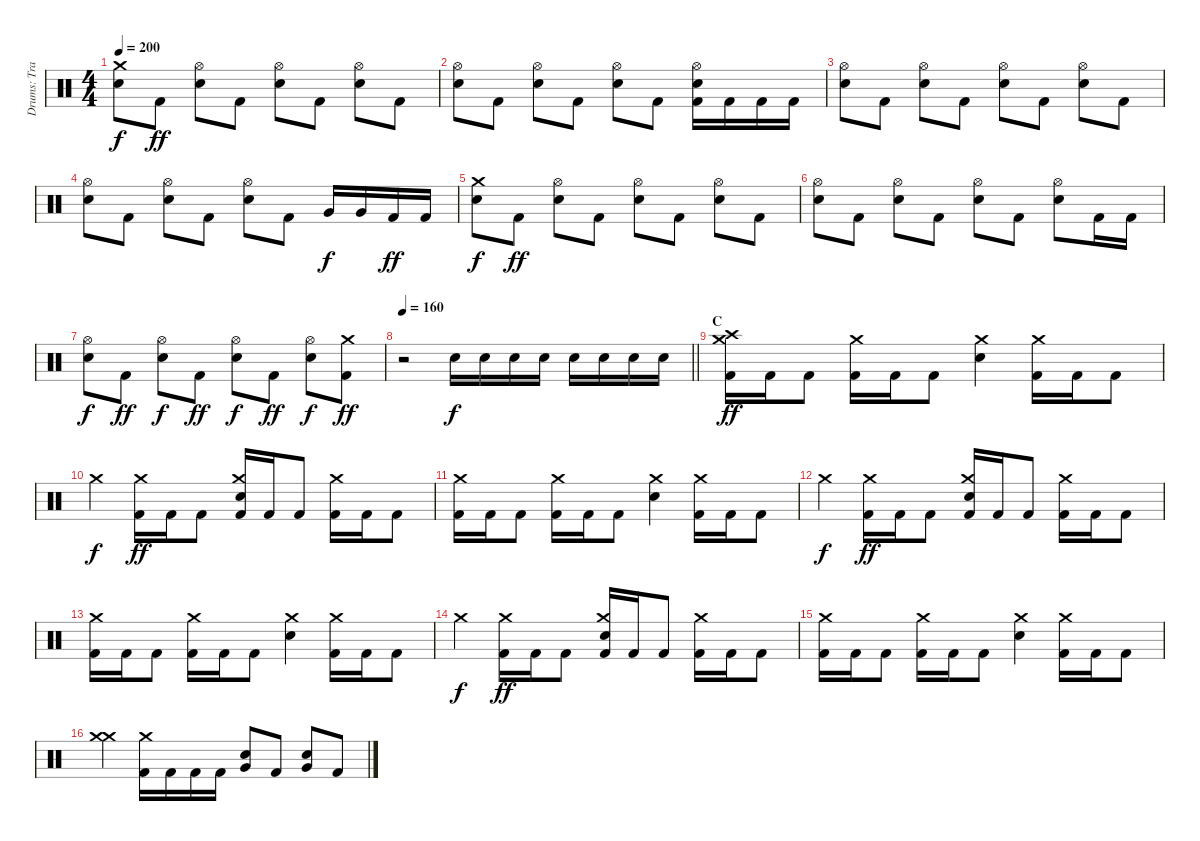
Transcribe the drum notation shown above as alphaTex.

\track ("Drums: Travis Clarke" "Drums: Tra") {instrument percussion}
\staff {score}
\articulation defaults
\ts (4 4)
\tempo 200
\clef neutral
\ks c
("Snare (hit) 2" "Crash medium (hit)").8{dy f} "Kick (hit) 2".8{dy ff} ("Snare (hit) 2" "Hi-Hat (open)").8 "Kick (hit) 2".8 ("Snare (hit) 2" "Hi-Hat (open)").8 "Kick (hit) 2".8 ("Snare (hit) 2" "Hi-Hat (open)").8 "Kick (hit) 2".8 |
("Snare (hit) 2" "Hi-Hat (open)").8 "Kick (hit) 2".8 ("Snare (hit) 2" "Hi-Hat (open)").8 "Kick (hit) 2".8 ("Snare (hit) 2" "Hi-Hat (open)").8 "Kick (hit) 2".8 ("Kick (hit) 2" "Snare (hit) 2" "Hi-Hat (open)").16 "Kick (hit) 2".16 "Kick (hit) 2".16 "Kick (hit) 2".16 |
("Snare (hit) 2" "Hi-Hat (open)").8 "Kick (hit) 2".8 ("Snare (hit) 2" "Hi-Hat (open)").8 "Kick (hit) 2".8 ("Snare (hit) 2" "Hi-Hat (open)").8 "Kick (hit) 2".8 ("Snare (hit) 2" "Hi-Hat (open)").8 "Kick (hit) 2".8 |
("Snare (hit) 2" "Hi-Hat (open)").8 "Kick (hit) 2".8 ("Snare (hit) 2" "Hi-Hat (open)").8 "Kick (hit) 2".8 ("Snare (hit) 2" "Hi-Hat (open)").8 "Kick (hit) 2".8 "Very Low Tom (hit)".16{dy f} "Very Low Tom (hit)".16 "Kick (hit) 2".16{dy ff} "Kick (hit) 2".16 |
("Snare (hit) 2" "Crash medium (hit)").8{dy f} "Kick (hit) 2".8{dy ff} ("Snare (hit) 2" "Hi-Hat (open)").8 "Kick (hit) 2".8 ("Snare (hit) 2" "Hi-Hat (open)").8 "Kick (hit) 2".8 ("Snare (hit) 2" "Hi-Hat (open)").8 "Kick (hit) 2".8 |
("Snare (hit) 2" "Hi-Hat (open)").8 "Kick (hit) 2".8 ("Snare (hit) 2" "Hi-Hat (open)").8 "Kick (hit) 2".8 ("Snare (hit) 2" "Hi-Hat (open)").8 "Kick (hit) 2".8 ("Snare (hit) 2" "Hi-Hat (open)").8 "Kick (hit) 2".16 "Kick (hit) 2".16 |
("Snare (hit) 2" "Hi-Hat (open)").8{dy f} "Kick (hit) 2".8{dy ff} ("Snare (hit) 2" "Hi-Hat (open)").8{dy f} "Kick (hit) 2".8{dy ff} ("Snare (hit) 2" "Hi-Hat (open)").8{dy f} "Kick (hit) 2".8{dy ff} ("Snare (hit) 2" "Hi-Hat (open)").8{dy f} ("Kick (hit) 2" "Crash medium (hit)").8{dy ff} |
\tempo 160
\barLineRight lightlight
r.2 "Snare (hit) 2".16{dy f} "Snare (hit) 2".16 "Snare (hit) 2".16 "Snare (hit) 2".16 "Snare (hit) 2".16 "Snare (hit) 2".16 "Snare (hit) 2".16 "Snare (hit) 2".16 |
\section ("" "C")
("Kick (hit) 2" "Crash high (hit)" "Crash medium (hit)").16{dy ff} "Kick (hit) 2".16 "Kick (hit) 2".8 ("Kick (hit) 2" "Crash medium (hit)").16 "Kick (hit) 2".16 "Kick (hit) 2".8 ("Snare (hit) 2" "Crash medium (hit)").4 ("Kick (hit) 2" "Crash medium (hit)").16 "Kick (hit) 2".16 "Kick (hit) 2".8 |
"Crash medium (hit)".4{dy f} ("Kick (hit) 2" "Crash medium (hit)").16{dy ff} "Kick (hit) 2".16 "Kick (hit) 2".8 ("Kick (hit) 2" "Snare (hit) 2" "Crash medium (hit)").16 "Kick (hit) 2".16 "Kick (hit) 2".8 ("Kick (hit) 2" "Crash medium (hit)").16 "Kick (hit) 2".16 "Kick (hit) 2".8 |
("Kick (hit) 2" "Crash medium (hit)").16 "Kick (hit) 2".16 "Kick (hit) 2".8 ("Kick (hit) 2" "Crash medium (hit)").16 "Kick (hit) 2".16 "Kick (hit) 2".8 ("Snare (hit) 2" "Crash medium (hit)").4 ("Kick (hit) 2" "Crash medium (hit)").16 "Kick (hit) 2".16 "Kick (hit) 2".8 |
"Crash medium (hit)".4{dy f} ("Kick (hit) 2" "Crash medium (hit)").16{dy ff} "Kick (hit) 2".16 "Kick (hit) 2".8 ("Kick (hit) 2" "Snare (hit) 2" "Crash medium (hit)").16 "Kick (hit) 2".16 "Kick (hit) 2".8 ("Kick (hit) 2" "Crash medium (hit)").16 "Kick (hit) 2".16 "Kick (hit) 2".8 |
("Kick (hit) 2" "Crash medium (hit)").16 "Kick (hit) 2".16 "Kick (hit) 2".8 ("Kick (hit) 2" "Crash medium (hit)").16 "Kick (hit) 2".16 "Kick (hit) 2".8 ("Snare (hit) 2" "Crash medium (hit)").4 ("Kick (hit) 2" "Crash medium (hit)").16 "Kick (hit) 2".16 "Kick (hit) 2".8 |
"Crash medium (hit)".4{dy f} ("Kick (hit) 2" "Crash medium (hit)").16{dy ff} "Kick (hit) 2".16 "Kick (hit) 2".8 ("Kick (hit) 2" "Snare (hit) 2" "Crash medium (hit)").16 "Kick (hit) 2".16 "Kick (hit) 2".8 ("Kick (hit) 2" "Crash medium (hit)").16 "Kick (hit) 2".16 "Kick (hit) 2".8 |
("Kick (hit) 2" "Crash medium (hit)").16 "Kick (hit) 2".16 "Kick (hit) 2".8 ("Kick (hit) 2" "Crash medium (hit)").16 "Kick (hit) 2".16 "Kick (hit) 2".8 ("Snare (hit) 2" "Crash medium (hit)").4 ("Kick (hit) 2" "Crash medium (hit)").16 "Kick (hit) 2".16 "Kick (hit) 2".8 |
("Crash medium (hit)" "Crash medium (hit)").4 ("Kick (hit) 2" "Crash medium (hit)").16 "Kick (hit) 2".16 "Kick (hit) 2".16 "Kick (hit) 2".16 ("Snare (hit) 2" "Very Low Tom (hit)").8 "Kick (hit) 2".8 ("Snare (hit) 2" "Very Low Tom (hit)").8 "Kick (hit) 2".8
